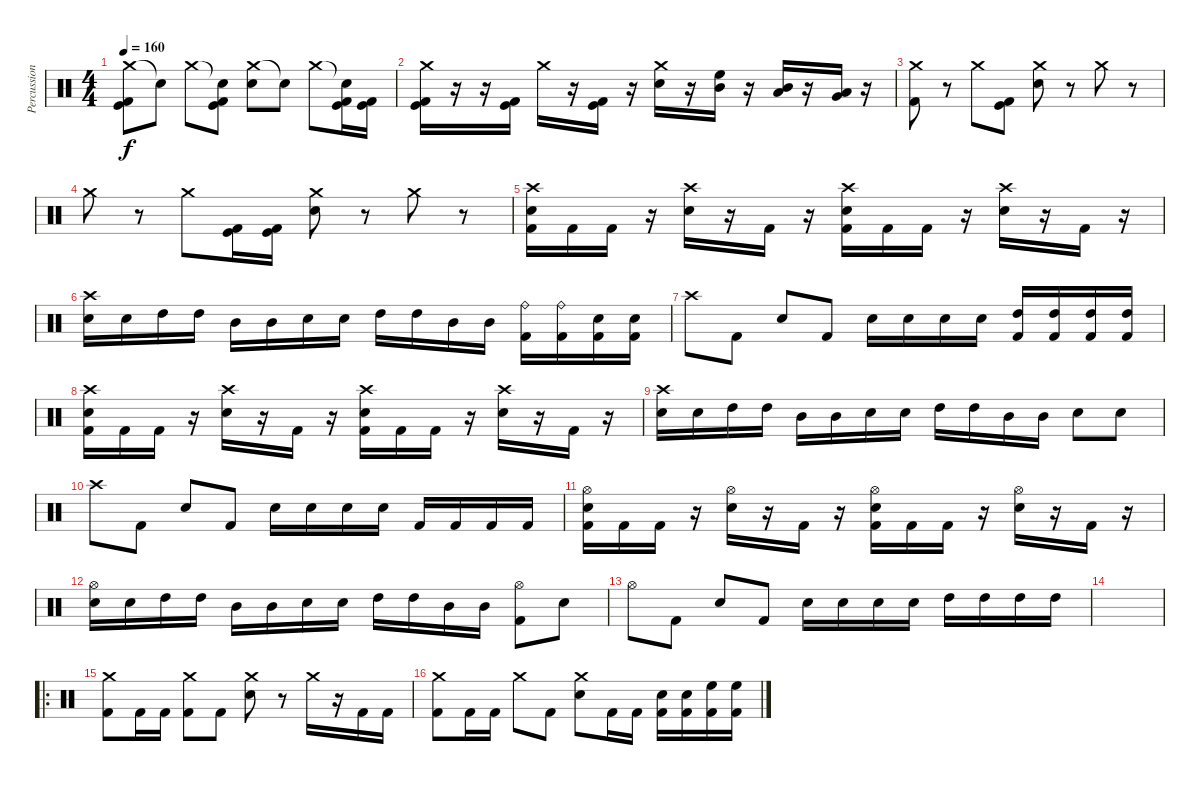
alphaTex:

\track ("Percussion" "Percussion") {instrument percussion}
\staff {score}
\articulation defaults
\ts (4 4)
\tempo 160
\clef neutral
\ks c
("Crash medium (hit)" "Kick (hit)" "Kick (hit) 2").8{dy f} "Snare (hit)"{t}.8 "Crash medium (hit)".8 ("Snare (hit)"{t} "Kick (hit)" "Kick (hit) 2").8 ("Crash medium (hit)" "Electric Snare (hit)").8 "Snare (hit)"{t}.8 "Crash medium (hit)".8 ("Snare (hit)"{t} "Kick (hit)" "Kick (hit) 2").16 ("Kick (hit)" "Kick (hit) 2").16 |
("Crash medium (hit)" "Kick (hit)" "Kick (hit) 2").16 r.16 r.16 ("Kick (hit)" "Kick (hit) 2").16 "Crash medium (hit)".16 r.16 ("Kick (hit)" "Kick (hit) 2").16 r.16 ("Crash medium (hit)" "Electric Snare (hit)").16 r.16 ("High Floor Tom (hit)" "Mid Tom (hit)").16 r.16 ("Mid Tom (hit)" "Low Tom (hit)").16 r.16 ("Low Tom (hit)" "Very Low Tom (hit)").16 r.16 |
("Crash medium (hit)" "Kick (hit) 2").8 r.8 "Crash medium (hit)".8 ("Kick (hit)" "Kick (hit) 2").8 ("Crash medium (hit)" "Electric Snare (hit)").8 r.8 "Crash medium (hit)".8 r.8 |
"Crash medium (hit)".8 r.8 "Crash medium (hit)".8 ("Kick (hit)" "Kick (hit) 2").16 ("Kick (hit)" "Kick (hit) 2").16 ("Crash medium (hit)" "Electric Snare (hit)").8 r.8 "Crash medium (hit)".8 r.8 |
("Crash high (hit)" "Snare (hit) 2" "Kick (hit) 2").16 "Kick (hit) 2".16 "Kick (hit) 2".16 r.16 ("Crash high (hit)" "Snare (hit) 2").16 r.16 "Kick (hit) 2".16 r.16 ("Crash high (hit)" "Snare (hit) 2" "Kick (hit) 2").16 "Kick (hit) 2".16 "Kick (hit) 2".16 r.16 ("Crash high (hit)" "Snare (hit) 2").16 r.16 "Kick (hit) 2".16 r.16 |
("Crash high (hit)" "Snare (hit) 2").16 "Snare (hit) 2".16 "High Tom (hit)".16 "High Tom (hit)".16 "Mid Tom (hit)".16 "Mid Tom (hit)".16 "Snare (hit) 2".16 "Snare (hit) 2".16 "High Tom (hit)".16 "High Tom (hit)".16 "Mid Tom (hit)".16 "Mid Tom (hit)".16 ("Ride (bell)" "Kick (hit) 2").16 ("Ride (bell)" "Kick (hit) 2").16 ("Snare (hit) 2" "Kick (hit) 2").16 ("Snare (hit) 2" "Kick (hit) 2").16 |
"Crash high (hit)".8 "Kick (hit) 2".8 "Snare (hit) 2".8 "Kick (hit) 2".8 "Snare (hit) 2".16 "Snare (hit) 2".16 "Snare (hit) 2".16 "Snare (hit) 2".16 ("High Tom (hit)" "Kick (hit) 2").16 ("High Tom (hit)" "Kick (hit) 2").16 ("High Tom (hit)" "Kick (hit) 2").16 ("High Tom (hit)" "Kick (hit) 2").16 |
("Crash high (hit)" "Snare (hit) 2" "Kick (hit) 2").16 "Kick (hit) 2".16 "Kick (hit) 2".16 r.16 ("Crash high (hit)" "Snare (hit) 2").16 r.16 "Kick (hit) 2".16 r.16 ("Crash high (hit)" "Snare (hit) 2" "Kick (hit) 2").16 "Kick (hit) 2".16 "Kick (hit) 2".16 r.16 ("Crash high (hit)" "Snare (hit) 2").16 r.16 "Kick (hit) 2".16 r.16 |
("Crash high (hit)" "Snare (hit) 2").16 "Snare (hit) 2".16 "High Tom (hit)".16 "High Tom (hit)".16 "Mid Tom (hit)".16 "Mid Tom (hit)".16 "Snare (hit) 2".16 "Snare (hit) 2".16 "High Tom (hit)".16 "High Tom (hit)".16 "Mid Tom (hit)".16 "Mid Tom (hit)".16 "Snare (hit) 2".8 "Snare (hit) 2".8 |
"Crash high (hit)".8 "Kick (hit) 2".8 "Snare (hit) 2".8 "Kick (hit) 2".8 "Snare (hit) 2".16 "Snare (hit) 2".16 "Snare (hit) 2".16 "Snare (hit) 2".16 "Kick (hit) 2".16 "Kick (hit) 2".16 "Kick (hit) 2".16 "Kick (hit) 2".16 |
("Hi-Hat (open)" "Snare (hit) 2" "Kick (hit) 2").16 "Kick (hit) 2".16 "Kick (hit) 2".16 r.16 ("Hi-Hat (open)" "Snare (hit) 2").16 r.16 "Kick (hit) 2".16 r.16 ("Hi-Hat (open)" "Snare (hit) 2" "Kick (hit) 2").16 "Kick (hit) 2".16 "Kick (hit) 2".16 r.16 ("Hi-Hat (open)" "Snare (hit) 2").16 r.16 "Kick (hit) 2".16 r.16 |
("Hi-Hat (open)" "Snare (hit) 2").16 "Snare (hit) 2".16 "High Tom (hit)".16 "High Tom (hit)".16 "Mid Tom (hit)".16 "Mid Tom (hit)".16 "Snare (hit) 2".16 "Snare (hit) 2".16 "High Tom (hit)".16 "High Tom (hit)".16 "Mid Tom (hit)".16 "Mid Tom (hit)".16 ("Hi-Hat (open)" "Kick (hit) 2").8 "Snare (hit) 2".8 |
"Hi-Hat (open)".8 "Kick (hit) 2".8 "Snare (hit) 2".8 "Kick (hit) 2".8 "Snare (hit) 2".16 "Snare (hit) 2".16 "Snare (hit) 2".16 "Snare (hit) 2".16 "High Tom (hit)".16 "High Tom (hit)".16 "High Tom (hit)".16 "High Tom (hit)".16 |
|
\ro
("Crash medium (hit)" "Kick (hit) 2").8 "Kick (hit) 2".16 "Kick (hit) 2".16 ("Crash medium (hit)" "Kick (hit) 2").8 "Kick (hit) 2".8 ("Crash medium (hit)" "Snare (hit) 2").8 r.8 "Crash medium (hit)".16 r.16 "Kick (hit) 2".16 "Kick (hit) 2".16 |
("Crash medium (hit)" "Kick (hit) 2").8 "Kick (hit) 2".16 "Kick (hit) 2".16 "Crash medium (hit)".8 "Kick (hit) 2".8 ("Crash medium (hit)" "Snare (hit) 2").8 "Kick (hit) 2".16 "Kick (hit) 2".16 ("Snare (hit) 2" "Kick (hit) 2").16 ("Snare (hit) 2" "Kick (hit) 2").16 ("High Floor Tom (hit)" "Kick (hit) 2").16 ("High Floor Tom (hit)" "Kick (hit) 2").16
